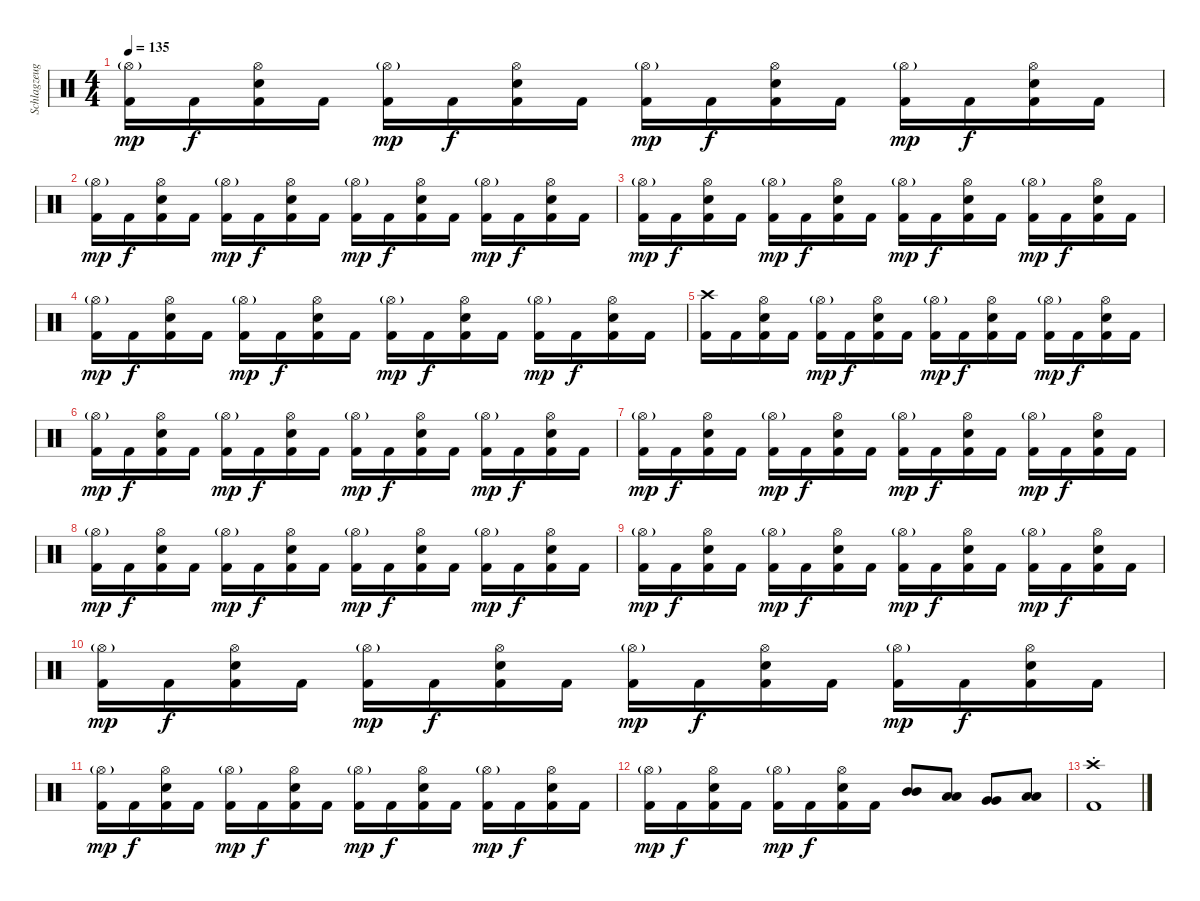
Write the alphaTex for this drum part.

\track ("Schlagzeug" "Schlagzeug") {instrument percussion}
\staff {score}
\articulation defaults
\ts (4 4)
\tempo 135
\clef neutral
\ks c
("Hi-Hat (open)"{g} "Kick (hit) 2").16{dy mp} "Kick (hit) 2".16{dy f} ("Hi-Hat (open)" "Electric Snare (hit)" "Kick (hit) 2").16 "Kick (hit) 2".16 ("Hi-Hat (open)"{g} "Kick (hit) 2").16{dy mp} "Kick (hit) 2".16{dy f} ("Hi-Hat (open)" "Electric Snare (hit)" "Kick (hit) 2").16 "Kick (hit) 2".16 ("Hi-Hat (open)"{g} "Kick (hit) 2").16{dy mp} "Kick (hit) 2".16{dy f} ("Hi-Hat (open)" "Electric Snare (hit)" "Kick (hit) 2").16 "Kick (hit) 2".16 ("Hi-Hat (open)"{g} "Kick (hit) 2").16{dy mp} "Kick (hit) 2".16{dy f} ("Hi-Hat (open)" "Electric Snare (hit)" "Kick (hit) 2").16 "Kick (hit) 2".16 |
("Hi-Hat (open)"{g} "Kick (hit) 2").16{dy mp} "Kick (hit) 2".16{dy f} ("Hi-Hat (open)" "Electric Snare (hit)" "Kick (hit) 2").16 "Kick (hit) 2".16 ("Hi-Hat (open)"{g} "Kick (hit) 2").16{dy mp} "Kick (hit) 2".16{dy f} ("Hi-Hat (open)" "Electric Snare (hit)" "Kick (hit) 2").16 "Kick (hit) 2".16 ("Hi-Hat (open)"{g} "Kick (hit) 2").16{dy mp} "Kick (hit) 2".16{dy f} ("Hi-Hat (open)" "Electric Snare (hit)" "Kick (hit) 2").16 "Kick (hit) 2".16 ("Hi-Hat (open)"{g} "Kick (hit) 2").16{dy mp} "Kick (hit) 2".16{dy f} ("Hi-Hat (open)" "Electric Snare (hit)" "Kick (hit) 2").16 "Kick (hit) 2".16 |
("Hi-Hat (open)"{g} "Kick (hit) 2").16{dy mp} "Kick (hit) 2".16{dy f} ("Hi-Hat (open)" "Electric Snare (hit)" "Kick (hit) 2").16 "Kick (hit) 2".16 ("Hi-Hat (open)"{g} "Kick (hit) 2").16{dy mp} "Kick (hit) 2".16{dy f} ("Hi-Hat (open)" "Electric Snare (hit)" "Kick (hit) 2").16 "Kick (hit) 2".16 ("Hi-Hat (open)"{g} "Kick (hit) 2").16{dy mp} "Kick (hit) 2".16{dy f} ("Hi-Hat (open)" "Electric Snare (hit)" "Kick (hit) 2").16 "Kick (hit) 2".16 ("Hi-Hat (open)"{g} "Kick (hit) 2").16{dy mp} "Kick (hit) 2".16{dy f} ("Hi-Hat (open)" "Electric Snare (hit)" "Kick (hit) 2").16 "Kick (hit) 2".16 |
("Hi-Hat (open)"{g} "Kick (hit) 2").16{dy mp} "Kick (hit) 2".16{dy f} ("Hi-Hat (open)" "Electric Snare (hit)" "Kick (hit) 2").16 "Kick (hit) 2".16 ("Hi-Hat (open)"{g} "Kick (hit) 2").16{dy mp} "Kick (hit) 2".16{dy f} ("Hi-Hat (open)" "Electric Snare (hit)" "Kick (hit) 2").16 "Kick (hit) 2".16 ("Hi-Hat (open)"{g} "Kick (hit) 2").16{dy mp} "Kick (hit) 2".16{dy f} ("Hi-Hat (open)" "Electric Snare (hit)" "Kick (hit) 2").16 "Kick (hit) 2".16 ("Hi-Hat (open)"{g} "Kick (hit) 2").16{dy mp} "Kick (hit) 2".16{dy f} ("Hi-Hat (open)" "Electric Snare (hit)" "Kick (hit) 2").16 "Kick (hit) 2".16 |
("Crash high (hit)" "Kick (hit) 2").16 "Kick (hit) 2".16 ("Hi-Hat (open)" "Electric Snare (hit)" "Kick (hit) 2").16 "Kick (hit) 2".16 ("Hi-Hat (open)"{g} "Kick (hit) 2").16{dy mp} "Kick (hit) 2".16{dy f} ("Hi-Hat (open)" "Electric Snare (hit)" "Kick (hit) 2").16 "Kick (hit) 2".16 ("Hi-Hat (open)"{g} "Kick (hit) 2").16{dy mp} "Kick (hit) 2".16{dy f} ("Hi-Hat (open)" "Electric Snare (hit)" "Kick (hit) 2").16 "Kick (hit) 2".16 ("Hi-Hat (open)"{g} "Kick (hit) 2").16{dy mp} "Kick (hit) 2".16{dy f} ("Hi-Hat (open)" "Electric Snare (hit)" "Kick (hit) 2").16 "Kick (hit) 2".16 |
("Hi-Hat (open)"{g} "Kick (hit) 2").16{dy mp} "Kick (hit) 2".16{dy f} ("Hi-Hat (open)" "Electric Snare (hit)" "Kick (hit) 2").16 "Kick (hit) 2".16 ("Hi-Hat (open)"{g} "Kick (hit) 2").16{dy mp} "Kick (hit) 2".16{dy f} ("Hi-Hat (open)" "Electric Snare (hit)" "Kick (hit) 2").16 "Kick (hit) 2".16 ("Hi-Hat (open)"{g} "Kick (hit) 2").16{dy mp} "Kick (hit) 2".16{dy f} ("Hi-Hat (open)" "Electric Snare (hit)" "Kick (hit) 2").16 "Kick (hit) 2".16 ("Hi-Hat (open)"{g} "Kick (hit) 2").16{dy mp} "Kick (hit) 2".16{dy f} ("Hi-Hat (open)" "Electric Snare (hit)" "Kick (hit) 2").16 "Kick (hit) 2".16 |
("Hi-Hat (open)"{g} "Kick (hit) 2").16{dy mp} "Kick (hit) 2".16{dy f} ("Hi-Hat (open)" "Electric Snare (hit)" "Kick (hit) 2").16 "Kick (hit) 2".16 ("Hi-Hat (open)"{g} "Kick (hit) 2").16{dy mp} "Kick (hit) 2".16{dy f} ("Hi-Hat (open)" "Electric Snare (hit)" "Kick (hit) 2").16 "Kick (hit) 2".16 ("Hi-Hat (open)"{g} "Kick (hit) 2").16{dy mp} "Kick (hit) 2".16{dy f} ("Hi-Hat (open)" "Electric Snare (hit)" "Kick (hit) 2").16 "Kick (hit) 2".16 ("Hi-Hat (open)"{g} "Kick (hit) 2").16{dy mp} "Kick (hit) 2".16{dy f} ("Hi-Hat (open)" "Electric Snare (hit)" "Kick (hit) 2").16 "Kick (hit) 2".16 |
("Hi-Hat (open)"{g} "Kick (hit) 2").16{dy mp} "Kick (hit) 2".16{dy f} ("Hi-Hat (open)" "Electric Snare (hit)" "Kick (hit) 2").16 "Kick (hit) 2".16 ("Hi-Hat (open)"{g} "Kick (hit) 2").16{dy mp} "Kick (hit) 2".16{dy f} ("Hi-Hat (open)" "Electric Snare (hit)" "Kick (hit) 2").16 "Kick (hit) 2".16 ("Hi-Hat (open)"{g} "Kick (hit) 2").16{dy mp} "Kick (hit) 2".16{dy f} ("Hi-Hat (open)" "Electric Snare (hit)" "Kick (hit) 2").16 "Kick (hit) 2".16 ("Hi-Hat (open)"{g} "Kick (hit) 2").16{dy mp} "Kick (hit) 2".16{dy f} ("Hi-Hat (open)" "Electric Snare (hit)" "Kick (hit) 2").16 "Kick (hit) 2".16 |
("Hi-Hat (open)"{g} "Kick (hit) 2").16{dy mp} "Kick (hit) 2".16{dy f} ("Hi-Hat (open)" "Electric Snare (hit)" "Kick (hit) 2").16 "Kick (hit) 2".16 ("Hi-Hat (open)"{g} "Kick (hit) 2").16{dy mp} "Kick (hit) 2".16{dy f} ("Hi-Hat (open)" "Electric Snare (hit)" "Kick (hit) 2").16 "Kick (hit) 2".16 ("Hi-Hat (open)"{g} "Kick (hit) 2").16{dy mp} "Kick (hit) 2".16{dy f} ("Hi-Hat (open)" "Electric Snare (hit)" "Kick (hit) 2").16 "Kick (hit) 2".16 ("Hi-Hat (open)"{g} "Kick (hit) 2").16{dy mp} "Kick (hit) 2".16{dy f} ("Hi-Hat (open)" "Electric Snare (hit)" "Kick (hit) 2").16 "Kick (hit) 2".16 |
("Hi-Hat (open)"{g} "Kick (hit) 2").16{dy mp} "Kick (hit) 2".16{dy f} ("Hi-Hat (open)" "Electric Snare (hit)" "Kick (hit) 2").16 "Kick (hit) 2".16 ("Hi-Hat (open)"{g} "Kick (hit) 2").16{dy mp} "Kick (hit) 2".16{dy f} ("Hi-Hat (open)" "Electric Snare (hit)" "Kick (hit) 2").16 "Kick (hit) 2".16 ("Hi-Hat (open)"{g} "Kick (hit) 2").16{dy mp} "Kick (hit) 2".16{dy f} ("Hi-Hat (open)" "Electric Snare (hit)" "Kick (hit) 2").16 "Kick (hit) 2".16 ("Hi-Hat (open)"{g} "Kick (hit) 2").16{dy mp} "Kick (hit) 2".16{dy f} ("Hi-Hat (open)" "Electric Snare (hit)" "Kick (hit) 2").16 "Kick (hit) 2".16 |
("Hi-Hat (open)"{g} "Kick (hit) 2").16{dy mp} "Kick (hit) 2".16{dy f} ("Hi-Hat (open)" "Electric Snare (hit)" "Kick (hit) 2").16 "Kick (hit) 2".16 ("Hi-Hat (open)"{g} "Kick (hit) 2").16{dy mp} "Kick (hit) 2".16{dy f} ("Hi-Hat (open)" "Electric Snare (hit)" "Kick (hit) 2").16 "Kick (hit) 2".16 ("Hi-Hat (open)"{g} "Kick (hit) 2").16{dy mp} "Kick (hit) 2".16{dy f} ("Hi-Hat (open)" "Electric Snare (hit)" "Kick (hit) 2").16 "Kick (hit) 2".16 ("Hi-Hat (open)"{g} "Kick (hit) 2").16{dy mp} "Kick (hit) 2".16{dy f} ("Hi-Hat (open)" "Electric Snare (hit)" "Kick (hit) 2").16 "Kick (hit) 2".16 |
("Hi-Hat (open)"{g} "Kick (hit) 2").16{dy mp} "Kick (hit) 2".16{dy f} ("Hi-Hat (open)" "Electric Snare (hit)" "Kick (hit) 2").16 "Kick (hit) 2".16 ("Hi-Hat (open)"{g} "Kick (hit) 2").16{dy mp} "Kick (hit) 2".16{dy f} ("Hi-Hat (open)" "Electric Snare (hit)" "Kick (hit) 2").16 "Kick (hit) 2".16 ("Mid Tom (hit)" "Mid Tom (hit)").8 ("Low Tom (hit)" "Low Tom (hit)").8 ("Very Low Tom (hit)" "Very Low Tom (hit)").8 ("Low Floor Tom (hit)" "Low Floor Tom (hit)").8 |
("Crash high (hit)"{st} "Kick (hit) 2").1
